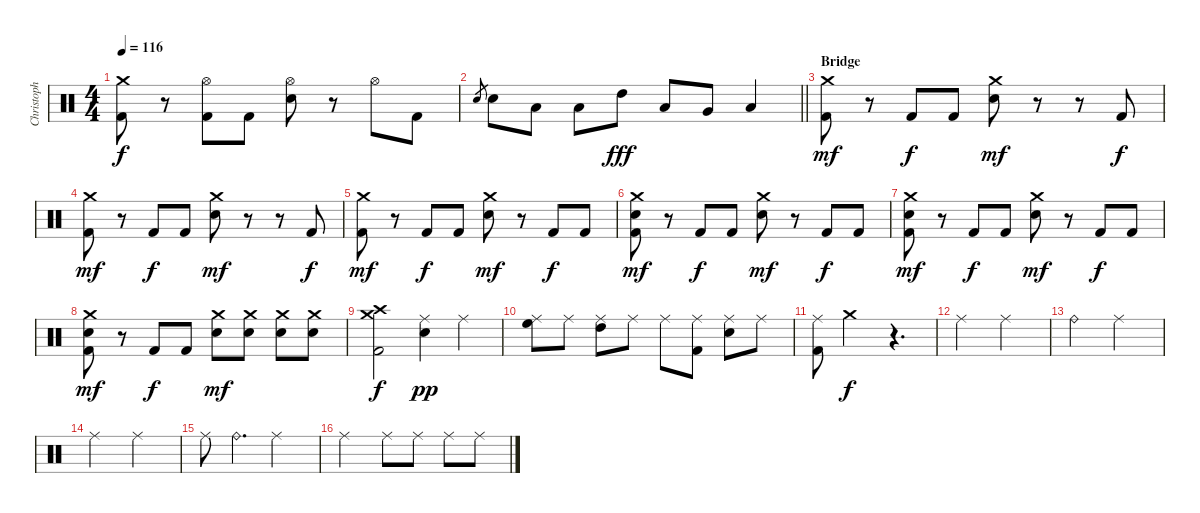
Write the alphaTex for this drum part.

\track ("Christoph Schneider" "Christoph ") {instrument percussion}
\staff {score}
\articulation defaults
\ts (4 4)
\tempo 116
\clef neutral
\ks c
("Crash medium (hit)" "Kick (hit) 2").8{dy f} r.8 ("Hi-Hat (open)" "Kick (hit) 2").8 "Kick (hit) 2".8 ("Hi-Hat (open)" "Snare (hit) 2").8 r.8 "Hi-Hat (open)".8 "Kick (hit) 2".8 |
\barLineRight lightlight "Snare (hit) 2".8{gr} "Snare (hit) 2".8 "Low Tom (hit)".8 "Low Tom (hit)".8 "High Tom (hit)".8{dy fff} "Low Tom (hit)".8 "Very Low Tom (hit)".8 "Low Floor Tom (hit)".4
|
\section ("" "Bridge")
("Crash medium (hit)" "Kick (hit) 2").8{dy mf} r.8 "Kick (hit) 2".8{dy f} "Kick (hit) 2".8 ("Crash medium (hit)" "Snare (hit) 2").8{dy mf} r.8 r.8 "Kick (hit) 2".8{dy f} |
("Crash medium (hit)" "Kick (hit) 2").8{dy mf} r.8 "Kick (hit) 2".8{dy f} "Kick (hit) 2".8 ("Crash medium (hit)" "Snare (hit) 2").8{dy mf} r.8 r.8 "Kick (hit) 2".8{dy f} |
("Crash medium (hit)" "Kick (hit) 2").8{dy mf} r.8 "Kick (hit) 2".8{dy f} "Kick (hit) 2".8 ("Crash medium (hit)" "Snare (hit) 2").8{dy mf} r.8 "Kick (hit) 2".8{dy f} "Kick (hit) 2".8 |
("Crash medium (hit)" "Kick (hit) 2" "Snare (hit) 2").8{dy mf} r.8 "Kick (hit) 2".8{dy f} "Kick (hit) 2".8 ("Crash medium (hit)" "Snare (hit) 2").8{dy mf} r.8 "Kick (hit) 2".8{dy f} "Kick (hit) 2".8 |
("Crash medium (hit)" "Kick (hit) 2" "Snare (hit) 2").8{dy mf} r.8 "Kick (hit) 2".8{dy f} "Kick (hit) 2".8 ("Crash medium (hit)" "Snare (hit) 2").8{dy mf} r.8 "Kick (hit) 2".8{dy f} "Kick (hit) 2".8 |
("Crash medium (hit)" "Kick (hit) 2" "Snare (hit) 2").8{dy mf} r.8 "Kick (hit) 2".8{dy f} "Kick (hit) 2".8 ("Crash medium (hit)" "Snare (hit) 2").8{dy mf} ("Crash medium (hit)" "Snare (hit) 2").8 ("Crash medium (hit)" "Snare (hit) 2").8 ("Crash medium (hit)" "Snare (hit) 2").8 |
("Crash medium (hit)" "Crash high (hit)" "Kick (hit) 2").2{dy f} ("Ride (middle)" "Snare (hit) 2").4{dy pp} "Ride (middle)".4 |
("Ride (middle)" "High Floor Tom (hit)").8 "Ride (middle)".8 ("Ride (middle)" "High Tom (hit)").8 "Ride (middle)".8 "Ride (middle)".8 ("Ride (middle)" "Kick (hit) 2").8 ("Ride (middle)" "Snare (hit) 2").8 "Ride (middle)".8 |
("Ride (middle)" "Kick (hit) 2").8 "Crash medium (hit)".2{dy f} r.4{d} |
"Ride (middle)".2 "Ride (middle)".2 |
"Ride (bell)".2 "Ride (middle)".2 |
"Ride (middle)".2 "Ride (middle)".2 |
"Ride (middle)".8 "Ride (bell)".4{d} "Ride (middle)".2 |
"Ride (middle)".2 "Ride (middle)".8 "Ride (middle)".8 "Ride (middle)".8 "Ride (middle)".8
